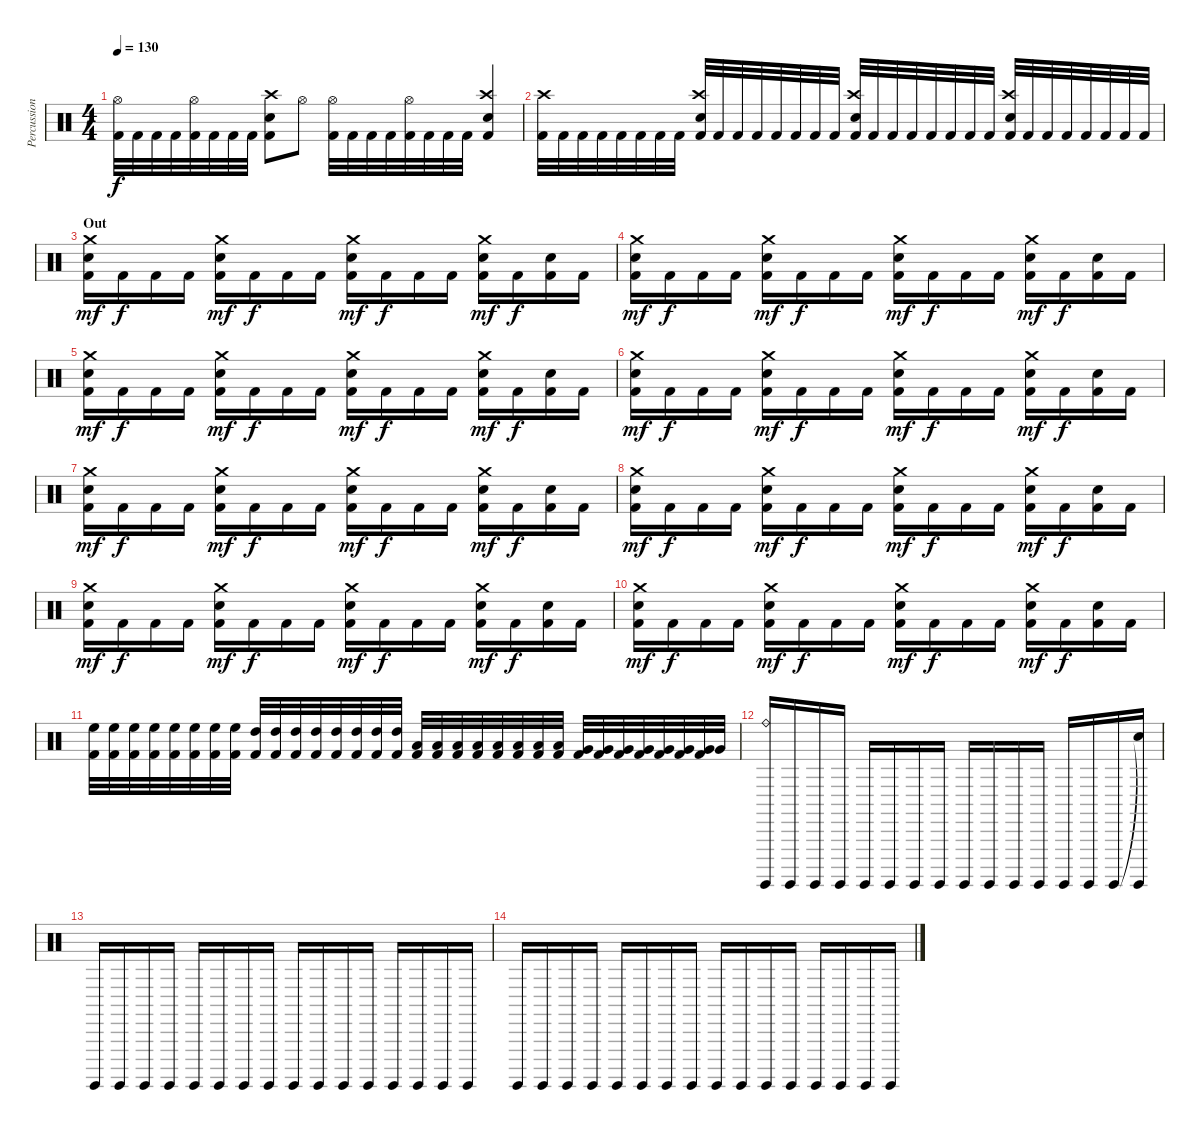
\track ("Percussion" "Percussion") {instrument percussion}
\staff {score}
\articulation defaults
\ts (4 4)
\tempo 130
\clef neutral
\ks c
("Hi-Hat (open)" "Kick (hit) 2").32{dy f} "Kick (hit) 2".32 "Kick (hit) 2".32 "Kick (hit) 2".32 ("Hi-Hat (open)" "Kick (hit) 2").32 "Kick (hit) 2".32 "Kick (hit) 2".32 "Kick (hit) 2".32 ("Crash high (hit)" "Electric Snare (hit)" "Kick (hit) 2").8 "Hi-Hat (open)".8 ("Hi-Hat (open)" "Kick (hit) 2").32 "Kick (hit) 2".32 "Kick (hit) 2".32 "Kick (hit) 2".32 ("Hi-Hat (open)" "Kick (hit) 2").32 "Kick (hit) 2".32 "Kick (hit) 2".32 "Kick (hit) 2".32 ("Crash high (hit)" "Electric Snare (hit)" "Kick (hit) 2").4 |
("Crash high (hit)" "Kick (hit) 2").32 "Kick (hit) 2".32 "Kick (hit) 2".32 "Kick (hit) 2".32 "Kick (hit) 2".32 "Kick (hit) 2".32 "Kick (hit) 2".32 "Kick (hit) 2".32 ("Crash high (hit)" "Electric Snare (hit)" "Kick (hit) 2").32 "Kick (hit) 2".32 "Kick (hit) 2".32 "Kick (hit) 2".32 "Kick (hit) 2".32 "Kick (hit) 2".32 "Kick (hit) 2".32 "Kick (hit) 2".32 ("Crash high (hit)" "Electric Snare (hit)" "Kick (hit) 2").32 "Kick (hit) 2".32 "Kick (hit) 2".32 "Kick (hit) 2".32 "Kick (hit) 2".32 "Kick (hit) 2".32 "Kick (hit) 2".32 "Kick (hit) 2".32 ("Crash high (hit)" "Electric Snare (hit)" "Kick (hit) 2").32 "Kick (hit) 2".32 "Kick (hit) 2".32 "Kick (hit) 2".32 "Kick (hit) 2".32 "Kick (hit) 2".32 "Kick (hit) 2".32 "Kick (hit) 2".32 |
\section ("" "Out")
("Crash medium (hit)" "Electric Snare (hit)" "Kick (hit) 2").16{dy mf} "Kick (hit) 2".16{dy f} "Kick (hit) 2".16 "Kick (hit) 2".16 ("Crash medium (hit)" "Electric Snare (hit)" "Kick (hit) 2").16{dy mf} "Kick (hit) 2".16{dy f} "Kick (hit) 2".16 "Kick (hit) 2".16 ("Crash medium (hit)" "Electric Snare (hit)" "Kick (hit) 2").16{dy mf} "Kick (hit) 2".16{dy f} "Kick (hit) 2".16 "Kick (hit) 2".16 ("Crash medium (hit)" "Electric Snare (hit)" "Kick (hit) 2").16{dy mf} "Kick (hit) 2".16{dy f} ("Electric Snare (hit)" "Kick (hit) 2").16 "Kick (hit) 2".16 |
("Crash medium (hit)" "Electric Snare (hit)" "Kick (hit) 2").16{dy mf} "Kick (hit) 2".16{dy f} "Kick (hit) 2".16 "Kick (hit) 2".16 ("Crash medium (hit)" "Electric Snare (hit)" "Kick (hit) 2").16{dy mf} "Kick (hit) 2".16{dy f} "Kick (hit) 2".16 "Kick (hit) 2".16 ("Crash medium (hit)" "Electric Snare (hit)" "Kick (hit) 2").16{dy mf} "Kick (hit) 2".16{dy f} "Kick (hit) 2".16 "Kick (hit) 2".16 ("Crash medium (hit)" "Electric Snare (hit)" "Kick (hit) 2").16{dy mf} "Kick (hit) 2".16{dy f} ("Electric Snare (hit)" "Kick (hit) 2").16 "Kick (hit) 2".16 |
("Crash medium (hit)" "Electric Snare (hit)" "Kick (hit) 2").16{dy mf} "Kick (hit) 2".16{dy f} "Kick (hit) 2".16 "Kick (hit) 2".16 ("Crash medium (hit)" "Electric Snare (hit)" "Kick (hit) 2").16{dy mf} "Kick (hit) 2".16{dy f} "Kick (hit) 2".16 "Kick (hit) 2".16 ("Crash medium (hit)" "Electric Snare (hit)" "Kick (hit) 2").16{dy mf} "Kick (hit) 2".16{dy f} "Kick (hit) 2".16 "Kick (hit) 2".16 ("Crash medium (hit)" "Electric Snare (hit)" "Kick (hit) 2").16{dy mf} "Kick (hit) 2".16{dy f} ("Electric Snare (hit)" "Kick (hit) 2").16 "Kick (hit) 2".16 |
("Crash medium (hit)" "Electric Snare (hit)" "Kick (hit) 2").16{dy mf} "Kick (hit) 2".16{dy f} "Kick (hit) 2".16 "Kick (hit) 2".16 ("Crash medium (hit)" "Electric Snare (hit)" "Kick (hit) 2").16{dy mf} "Kick (hit) 2".16{dy f} "Kick (hit) 2".16 "Kick (hit) 2".16 ("Crash medium (hit)" "Electric Snare (hit)" "Kick (hit) 2").16{dy mf} "Kick (hit) 2".16{dy f} "Kick (hit) 2".16 "Kick (hit) 2".16 ("Crash medium (hit)" "Electric Snare (hit)" "Kick (hit) 2").16{dy mf} "Kick (hit) 2".16{dy f} ("Electric Snare (hit)" "Kick (hit) 2").16 "Kick (hit) 2".16 |
("Crash medium (hit)" "Electric Snare (hit)" "Kick (hit) 2").16{dy mf} "Kick (hit) 2".16{dy f} "Kick (hit) 2".16 "Kick (hit) 2".16 ("Crash medium (hit)" "Electric Snare (hit)" "Kick (hit) 2").16{dy mf} "Kick (hit) 2".16{dy f} "Kick (hit) 2".16 "Kick (hit) 2".16 ("Crash medium (hit)" "Electric Snare (hit)" "Kick (hit) 2").16{dy mf} "Kick (hit) 2".16{dy f} "Kick (hit) 2".16 "Kick (hit) 2".16 ("Crash medium (hit)" "Electric Snare (hit)" "Kick (hit) 2").16{dy mf} "Kick (hit) 2".16{dy f} ("Electric Snare (hit)" "Kick (hit) 2").16 "Kick (hit) 2".16 |
("Crash medium (hit)" "Electric Snare (hit)" "Kick (hit) 2").16{dy mf} "Kick (hit) 2".16{dy f} "Kick (hit) 2".16 "Kick (hit) 2".16 ("Crash medium (hit)" "Electric Snare (hit)" "Kick (hit) 2").16{dy mf} "Kick (hit) 2".16{dy f} "Kick (hit) 2".16 "Kick (hit) 2".16 ("Crash medium (hit)" "Electric Snare (hit)" "Kick (hit) 2").16{dy mf} "Kick (hit) 2".16{dy f} "Kick (hit) 2".16 "Kick (hit) 2".16 ("Crash medium (hit)" "Electric Snare (hit)" "Kick (hit) 2").16{dy mf} "Kick (hit) 2".16{dy f} ("Electric Snare (hit)" "Kick (hit) 2").16 "Kick (hit) 2".16 |
("Crash medium (hit)" "Electric Snare (hit)" "Kick (hit) 2").16{dy mf} "Kick (hit) 2".16{dy f} "Kick (hit) 2".16 "Kick (hit) 2".16 ("Crash medium (hit)" "Electric Snare (hit)" "Kick (hit) 2").16{dy mf} "Kick (hit) 2".16{dy f} "Kick (hit) 2".16 "Kick (hit) 2".16 ("Crash medium (hit)" "Electric Snare (hit)" "Kick (hit) 2").16{dy mf} "Kick (hit) 2".16{dy f} "Kick (hit) 2".16 "Kick (hit) 2".16 ("Crash medium (hit)" "Electric Snare (hit)" "Kick (hit) 2").16{dy mf} "Kick (hit) 2".16{dy f} ("Electric Snare (hit)" "Kick (hit) 2").16 "Kick (hit) 2".16 |
("Crash medium (hit)" "Electric Snare (hit)" "Kick (hit) 2").16{dy mf} "Kick (hit) 2".16{dy f} "Kick (hit) 2".16 "Kick (hit) 2".16 ("Crash medium (hit)" "Electric Snare (hit)" "Kick (hit) 2").16{dy mf} "Kick (hit) 2".16{dy f} "Kick (hit) 2".16 "Kick (hit) 2".16 ("Crash medium (hit)" "Electric Snare (hit)" "Kick (hit) 2").16{dy mf} "Kick (hit) 2".16{dy f} "Kick (hit) 2".16 "Kick (hit) 2".16 ("Crash medium (hit)" "Electric Snare (hit)" "Kick (hit) 2").16{dy mf} "Kick (hit) 2".16{dy f} ("Electric Snare (hit)" "Kick (hit) 2").16 "Kick (hit) 2".16 |
("High Floor Tom (hit)" "Kick (hit) 2").32 ("High Floor Tom (hit)" "Kick (hit) 2").32 ("High Floor Tom (hit)" "Kick (hit) 2").32 ("High Floor Tom (hit)" "Kick (hit) 2").32 ("High Floor Tom (hit)" "Kick (hit) 2").32 ("High Floor Tom (hit)" "Kick (hit) 2").32 ("High Floor Tom (hit)" "Kick (hit) 2").32 ("High Floor Tom (hit)" "Kick (hit) 2").32 ("High Tom (hit)" "Kick (hit) 2").32 ("High Tom (hit)" "Kick (hit) 2").32 ("High Tom (hit)" "Kick (hit) 2").32 ("High Tom (hit)" "Kick (hit) 2").32 ("High Tom (hit)" "Kick (hit) 2").32 ("High Tom (hit)" "Kick (hit) 2").32 ("High Tom (hit)" "Kick (hit) 2").32 ("High Tom (hit)" "Kick (hit) 2").32 ("Low Tom (hit)" "Kick (hit) 2").32 ("Low Tom (hit)" "Kick (hit) 2").32 ("Low Tom (hit)" "Kick (hit) 2").32 ("Low Tom (hit)" "Kick (hit) 2").32 ("Low Tom (hit)" "Kick (hit) 2").32 ("Low Tom (hit)" "Kick (hit) 2").32 ("Low Tom (hit)" "Kick (hit) 2").32 ("Low Tom (hit)" "Kick (hit) 2").32 ("Very Low Tom (hit)" "Kick (hit) 2").32 ("Very Low Tom (hit)" "Kick (hit) 2").32 ("Very Low Tom (hit)" "Kick (hit) 2").32 ("Very Low Tom (hit)" "Kick (hit) 2").32 ("Very Low Tom (hit)" "Kick (hit) 2").32 ("Very Low Tom (hit)" "Kick (hit) 2").32 ("Very Low Tom (hit)" "Kick (hit) 2").32 "Very Low Tom (hit)".32 |
("Ride (bell)" "Surdo (hit)").16{volume 10} "Surdo (hit)".16 "Surdo (hit)".16 "Surdo (hit)".16 "Surdo (hit)".16 "Surdo (hit)".16 "Surdo (hit)".16 "Surdo (hit)".16 "Surdo (hit)".16 "Surdo (hit)".16 "Surdo (hit)".16 "Surdo (hit)".16 "Surdo (hit)".16 "Surdo (hit)".16 "Surdo (hit)".16 ("Snare (hit)"{t} "Surdo (hit)").16 |
"Surdo (hit)".16{volume 10} "Surdo (hit)".16 "Surdo (hit)".16 "Surdo (hit)".16 "Surdo (hit)".16 "Surdo (hit)".16 "Surdo (hit)".16 "Surdo (hit)".16 "Surdo (hit)".16 "Surdo (hit)".16 "Surdo (hit)".16 "Surdo (hit)".16 "Surdo (hit)".16 "Surdo (hit)".16 "Surdo (hit)".16 "Surdo (hit)".16 |
"Surdo (hit)".16{volume 10} "Surdo (hit)".16 "Surdo (hit)".16 "Surdo (hit)".16 "Surdo (hit)".16 "Surdo (hit)".16 "Surdo (hit)".16 "Surdo (hit)".16 "Surdo (hit)".16 "Surdo (hit)".16 "Surdo (hit)".16 "Surdo (hit)".16 "Surdo (hit)".16 "Surdo (hit)".16 "Surdo (hit)".16 "Surdo (hit)".16
